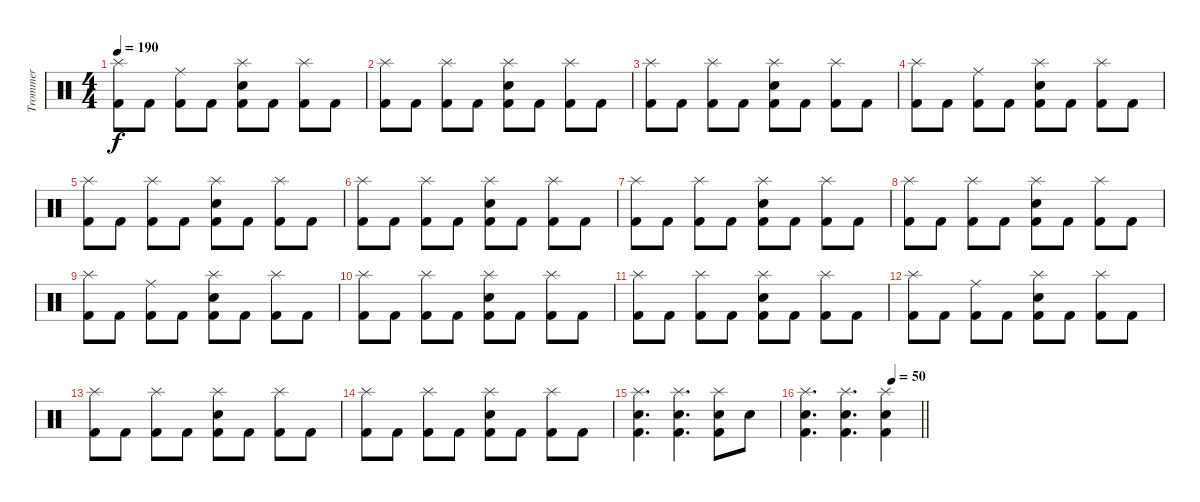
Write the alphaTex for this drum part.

\track ("Trommer" "Trommer") {instrument percussion}
\staff {score}
\articulation defaults
\ts (4 4)
\tempo 190
\clef neutral
\ks c
("Splash (hit)" "Kick (hit) 2").8{dy f} "Kick (hit) 2".8 ("Ride (middle)" "Kick (hit) 2").8 "Kick (hit) 2".8 ("Splash (hit)" "Snare (hit) 2" "Kick (hit) 2").8 "Kick (hit) 2".8 ("Splash (hit)" "Kick (hit) 2").8 "Kick (hit) 2".8 |
("Splash (hit)" "Kick (hit) 2").8 "Kick (hit) 2".8 ("Splash (hit)" "Kick (hit) 2").8 "Kick (hit) 2".8 ("Splash (hit)" "Snare (hit) 2" "Kick (hit) 2").8 "Kick (hit) 2".8 ("Splash (hit)" "Kick (hit) 2").8 "Kick (hit) 2".8 |
("Splash (hit)" "Kick (hit) 2").8 "Kick (hit) 2".8 ("Splash (hit)" "Kick (hit) 2").8 "Kick (hit) 2".8 ("Splash (hit)" "Snare (hit) 2" "Kick (hit) 2").8 "Kick (hit) 2".8 ("Splash (hit)" "Kick (hit) 2").8 "Kick (hit) 2".8 |
("Splash (hit)" "Kick (hit) 2").8 "Kick (hit) 2".8 ("Ride (middle)" "Kick (hit) 2").8 "Kick (hit) 2".8 ("Splash (hit)" "Snare (hit) 2" "Kick (hit) 2").8 "Kick (hit) 2".8 ("Splash (hit)" "Kick (hit) 2").8 "Kick (hit) 2".8 |
("Splash (hit)" "Kick (hit) 2").8 "Kick (hit) 2".8 ("Splash (hit)" "Kick (hit) 2").8 "Kick (hit) 2".8 ("Splash (hit)" "Snare (hit) 2" "Kick (hit) 2").8 "Kick (hit) 2".8 ("Splash (hit)" "Kick (hit) 2").8 "Kick (hit) 2".8 |
("Splash (hit)" "Kick (hit) 2").8 "Kick (hit) 2".8 ("Splash (hit)" "Kick (hit) 2").8 "Kick (hit) 2".8 ("Splash (hit)" "Snare (hit) 2" "Kick (hit) 2").8 "Kick (hit) 2".8 ("Splash (hit)" "Kick (hit) 2").8 "Kick (hit) 2".8 |
("Splash (hit)" "Kick (hit) 2").8 "Kick (hit) 2".8 ("Splash (hit)" "Kick (hit) 2").8 "Kick (hit) 2".8 ("Splash (hit)" "Snare (hit) 2" "Kick (hit) 2").8 "Kick (hit) 2".8 ("Splash (hit)" "Kick (hit) 2").8 "Kick (hit) 2".8 |
("Splash (hit)" "Kick (hit) 2").8 "Kick (hit) 2".8 ("Splash (hit)" "Kick (hit) 2").8 "Kick (hit) 2".8 ("Splash (hit)" "Snare (hit) 2" "Kick (hit) 2").8 "Kick (hit) 2".8 ("Splash (hit)" "Kick (hit) 2").8 "Kick (hit) 2".8 |
("Splash (hit)" "Kick (hit) 2").8 "Kick (hit) 2".8 ("Ride (middle)" "Kick (hit) 2").8 "Kick (hit) 2".8 ("Splash (hit)" "Snare (hit) 2" "Kick (hit) 2").8 "Kick (hit) 2".8 ("Splash (hit)" "Kick (hit) 2").8 "Kick (hit) 2".8 |
("Splash (hit)" "Kick (hit) 2").8 "Kick (hit) 2".8 ("Splash (hit)" "Kick (hit) 2").8 "Kick (hit) 2".8 ("Splash (hit)" "Snare (hit) 2" "Kick (hit) 2").8 "Kick (hit) 2".8 ("Splash (hit)" "Kick (hit) 2").8 "Kick (hit) 2".8 |
("Splash (hit)" "Kick (hit) 2").8 "Kick (hit) 2".8 ("Splash (hit)" "Kick (hit) 2").8 "Kick (hit) 2".8 ("Splash (hit)" "Snare (hit) 2" "Kick (hit) 2").8 "Kick (hit) 2".8 ("Splash (hit)" "Kick (hit) 2").8 "Kick (hit) 2".8 |
("Splash (hit)" "Kick (hit) 2").8 "Kick (hit) 2".8 ("Ride (middle)" "Kick (hit) 2").8 "Kick (hit) 2".8 ("Splash (hit)" "Snare (hit) 2" "Kick (hit) 2").8 "Kick (hit) 2".8 ("Splash (hit)" "Kick (hit) 2").8 "Kick (hit) 2".8 |
("Splash (hit)" "Kick (hit) 2").8 "Kick (hit) 2".8 ("Splash (hit)" "Kick (hit) 2").8 "Kick (hit) 2".8 ("Splash (hit)" "Snare (hit) 2" "Kick (hit) 2").8 "Kick (hit) 2".8 ("Splash (hit)" "Kick (hit) 2").8 "Kick (hit) 2".8 |
("Splash (hit)" "Kick (hit) 2").8 "Kick (hit) 2".8 ("Splash (hit)" "Kick (hit) 2").8 "Kick (hit) 2".8 ("Splash (hit)" "Snare (hit) 2" "Kick (hit) 2").8 "Kick (hit) 2".8 ("Splash (hit)" "Kick (hit) 2").8 "Kick (hit) 2".8 |
("Splash (hit)" "Snare (hit) 2" "Kick (hit) 2").4{d} ("Splash (hit)" "Snare (hit) 2" "Kick (hit) 2").4{d} ("Splash (hit)" "Snare (hit) 2" "Kick (hit) 2").8 "Snare (hit) 2".8 |
\tempo (50 0.75)
\barLineRight lightlight
("Splash (hit)" "Snare (hit) 2" "Kick (hit) 2").4{d} ("Splash (hit)" "Snare (hit) 2" "Kick (hit) 2").4{d} ("Splash (hit)" "Snare (hit) 2" "Kick (hit) 2").4
